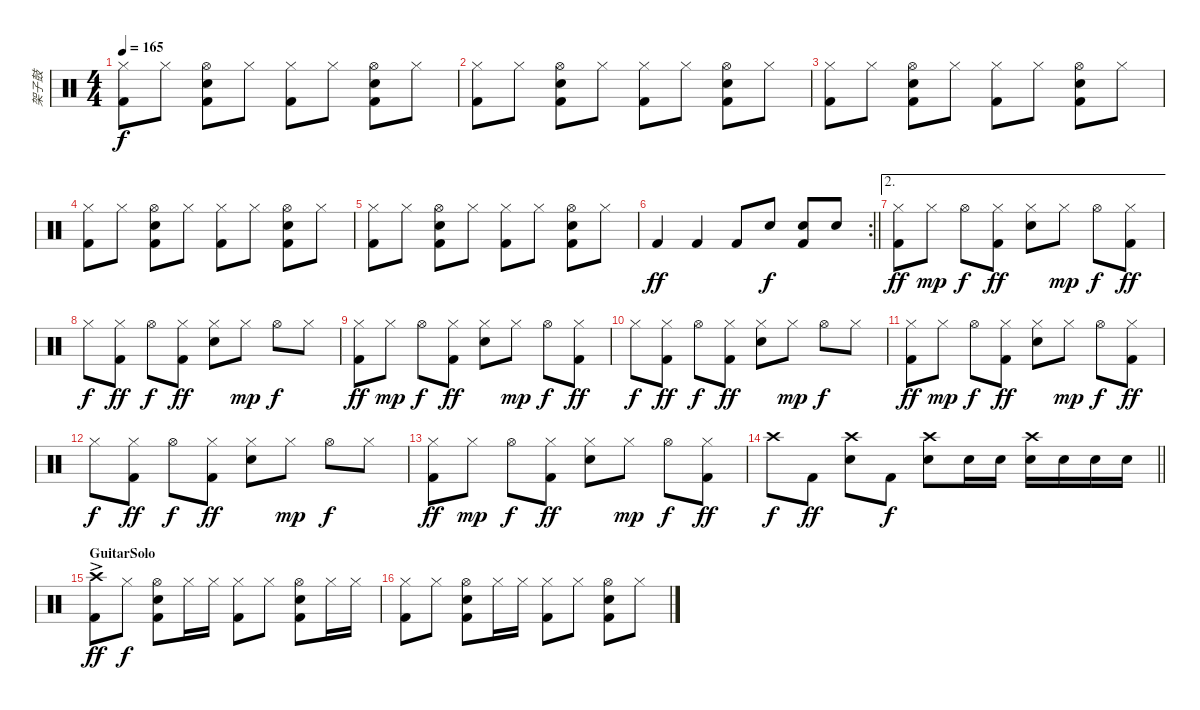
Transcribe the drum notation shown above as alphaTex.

\track ("架子鼓" "架子鼓") {instrument percussion}
\staff {score}
\articulation defaults
\ts (4 4)
\tempo 165
\clef neutral
\ks c
("Hi-Hat (closed)" "Kick (hit) 2").8{dy f} "Hi-Hat (closed)".8 ("Hi-Hat (open)" "Electric Snare (hit)" "Kick (hit) 2").8 "Hi-Hat (closed)".8 ("Hi-Hat (closed)" "Kick (hit) 2").8 "Hi-Hat (closed)".8 ("Hi-Hat (open)" "Electric Snare (hit)" "Kick (hit) 2").8 "Hi-Hat (closed)".8 |
("Hi-Hat (closed)" "Kick (hit) 2").8 "Hi-Hat (closed)".8 ("Hi-Hat (open)" "Electric Snare (hit)" "Kick (hit) 2").8 "Hi-Hat (closed)".8 ("Hi-Hat (closed)" "Kick (hit) 2").8 "Hi-Hat (closed)".8 ("Hi-Hat (open)" "Electric Snare (hit)" "Kick (hit) 2").8 "Hi-Hat (closed)".8 |
("Hi-Hat (closed)" "Kick (hit) 2").8 "Hi-Hat (closed)".8 ("Hi-Hat (open)" "Electric Snare (hit)" "Kick (hit) 2").8 "Hi-Hat (closed)".8 ("Hi-Hat (closed)" "Kick (hit) 2").8 "Hi-Hat (closed)".8 ("Hi-Hat (open)" "Electric Snare (hit)" "Kick (hit) 2").8 "Hi-Hat (closed)".8 |
("Hi-Hat (closed)" "Kick (hit) 2").8 "Hi-Hat (closed)".8 ("Hi-Hat (open)" "Electric Snare (hit)" "Kick (hit) 2").8 "Hi-Hat (closed)".8 ("Hi-Hat (closed)" "Kick (hit) 2").8 "Hi-Hat (closed)".8 ("Hi-Hat (open)" "Electric Snare (hit)" "Kick (hit) 2").8 "Hi-Hat (closed)".8 |
("Hi-Hat (closed)" "Kick (hit) 2").8 "Hi-Hat (closed)".8 ("Hi-Hat (open)" "Electric Snare (hit)" "Kick (hit) 2").8 "Hi-Hat (closed)".8 ("Hi-Hat (closed)" "Kick (hit) 2").8 "Hi-Hat (closed)".8 ("Hi-Hat (open)" "Electric Snare (hit)" "Kick (hit) 2").8 "Hi-Hat (closed)".8 |
\rc 2
\barLineRight lightlight "Kick (hit) 2".4{dy ff} "Kick (hit) 2".4 "Kick (hit) 2".8 "Electric Snare (hit)".8{dy f}
("Electric Snare (hit)" "Kick (hit) 2").8 "Electric Snare (hit)".8 |
\ae 2
("Hi-Hat (closed)" "Kick (hit) 2").8{dy ff} "Hi-Hat (closed)".8{dy mp} "Hi-Hat (open)".8{dy f} ("Hi-Hat (closed)" "Kick (hit) 2").8{dy ff} ("Hi-Hat (closed)" "Electric Snare (hit)").8 "Hi-Hat (closed)".8{dy mp} "Hi-Hat (open)".8{dy f} ("Hi-Hat (closed)" "Kick (hit) 2").8{dy ff} |
"Hi-Hat (closed)".8{dy f} ("Hi-Hat (closed)" "Kick (hit) 2").8{dy ff} "Hi-Hat (open)".8{dy f} ("Hi-Hat (closed)" "Kick (hit) 2").8{dy ff} ("Hi-Hat (closed)" "Electric Snare (hit)").8 "Hi-Hat (closed)".8{dy mp} "Hi-Hat (open)".8{dy f} "Hi-Hat (closed)".8 |
("Hi-Hat (closed)" "Kick (hit) 2").8{dy ff} "Hi-Hat (closed)".8{dy mp} "Hi-Hat (open)".8{dy f} ("Hi-Hat (closed)" "Kick (hit) 2").8{dy ff} ("Hi-Hat (closed)" "Electric Snare (hit)").8 "Hi-Hat (closed)".8{dy mp} "Hi-Hat (open)".8{dy f} ("Hi-Hat (closed)" "Kick (hit) 2").8{dy ff} |
"Hi-Hat (closed)".8{dy f} ("Hi-Hat (closed)" "Kick (hit) 2").8{dy ff} "Hi-Hat (open)".8{dy f} ("Hi-Hat (closed)" "Kick (hit) 2").8{dy ff} ("Hi-Hat (closed)" "Electric Snare (hit)").8 "Hi-Hat (closed)".8{dy mp} "Hi-Hat (open)".8{dy f} "Hi-Hat (closed)".8 |
("Hi-Hat (closed)" "Kick (hit) 2").8{dy ff} "Hi-Hat (closed)".8{dy mp} "Hi-Hat (open)".8{dy f} ("Hi-Hat (closed)" "Kick (hit) 2").8{dy ff} ("Hi-Hat (closed)" "Electric Snare (hit)").8 "Hi-Hat (closed)".8{dy mp} "Hi-Hat (open)".8{dy f} ("Hi-Hat (closed)" "Kick (hit) 2").8{dy ff} |
"Hi-Hat (closed)".8{dy f} ("Hi-Hat (closed)" "Kick (hit) 2").8{dy ff} "Hi-Hat (open)".8{dy f} ("Hi-Hat (closed)" "Kick (hit) 2").8{dy ff} ("Hi-Hat (closed)" "Electric Snare (hit)").8 "Hi-Hat (closed)".8{dy mp} "Hi-Hat (open)".8{dy f} "Hi-Hat (closed)".8 |
("Hi-Hat (closed)" "Kick (hit) 2").8{dy ff} "Hi-Hat (closed)".8{dy mp} "Hi-Hat (open)".8{dy f} ("Hi-Hat (closed)" "Kick (hit) 2").8{dy ff} ("Hi-Hat (closed)" "Electric Snare (hit)").8 "Hi-Hat (closed)".8{dy mp} "Hi-Hat (open)".8{dy f} ("Hi-Hat (closed)" "Kick (hit) 2").8{dy ff} |
\barLineRight lightlight "Crash high (hit)".8{dy f} "Kick (hit) 2".8{dy ff}
("Crash high (hit)" "Electric Snare (hit)").8 "Kick (hit) 2".8{dy f} ("Crash high (hit)" "Electric Snare (hit)").8 "Electric Snare (hit)".16 "Electric Snare (hit)".16 ("Crash high (hit)" "Electric Snare (hit)").16 "Electric Snare (hit)".16 "Electric Snare (hit)".16 "Electric Snare (hit)".16 |
\section ("" "GuitarSolo")
("Crash high (hit)"{ac} "Kick (hit) 2").8{dy ff} "Hi-Hat (closed)".8{dy f} ("Hi-Hat (open)" "Electric Snare (hit)" "Kick (hit) 2").8 "Hi-Hat (closed)".16 "Hi-Hat (closed)".16 ("Hi-Hat (closed)" "Kick (hit) 2").8 "Hi-Hat (closed)".8 ("Hi-Hat (open)" "Electric Snare (hit)" "Kick (hit) 2").8 "Hi-Hat (closed)".16 "Hi-Hat (closed)".16 |
("Hi-Hat (closed)" "Kick (hit) 2").8 "Hi-Hat (closed)".8 ("Hi-Hat (open)" "Electric Snare (hit)" "Kick (hit) 2").8 "Hi-Hat (closed)".16 "Hi-Hat (closed)".16 ("Hi-Hat (closed)" "Kick (hit) 2").8 "Hi-Hat (closed)".8 ("Hi-Hat (open)" "Electric Snare (hit)" "Kick (hit) 2").8 "Hi-Hat (closed)".8
